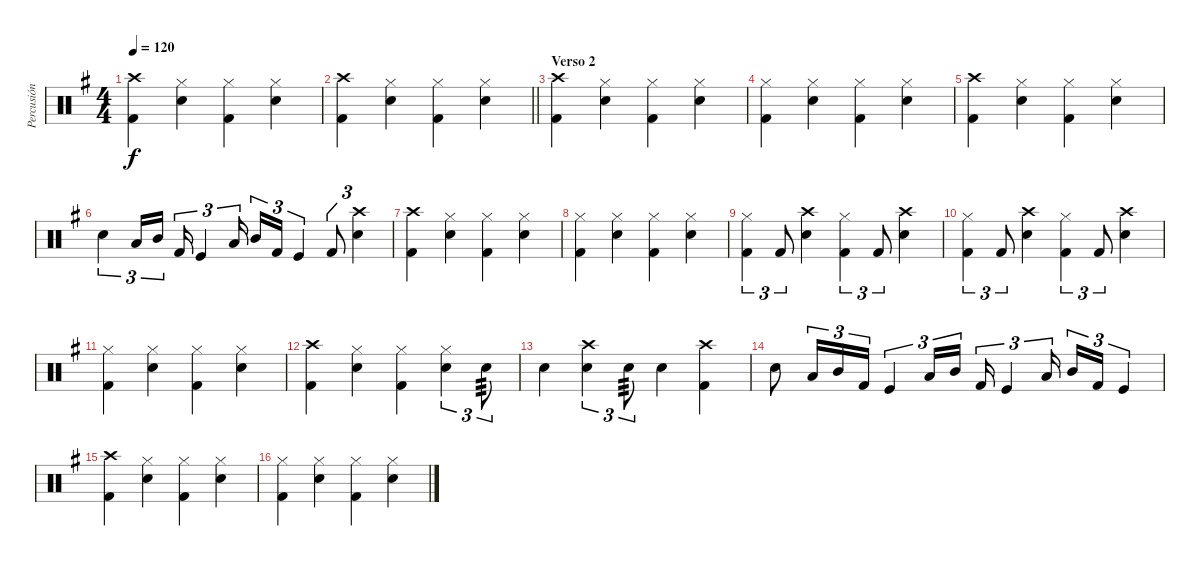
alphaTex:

\track ("Percusión" "Percusión") {instrument percussion}
\staff {score}
\articulation defaults
\ts (4 4)
\tempo 120
\clef neutral
\ks g
("Crash high (hit)" "Kick (hit) 2").4{dy f} ("Hi-Hat (closed)" "Snare (hit) 2").4 ("Hi-Hat (closed)" "Kick (hit) 2").4 ("Hi-Hat (closed)" "Snare (hit) 2").4 |
\barLineRight lightlight
("Crash high (hit)" "Kick (hit) 2").4 ("Hi-Hat (closed)" "Snare (hit) 2").4 ("Hi-Hat (closed)" "Kick (hit) 2").4 ("Hi-Hat (closed)" "Snare (hit) 2").4 |
\section ("" "Verso 2")
("Crash high (hit)" "Kick (hit) 2").4 ("Hi-Hat (closed)" "Snare (hit) 2").4 ("Hi-Hat (closed)" "Kick (hit) 2").4 ("Hi-Hat (closed)" "Snare (hit) 2").4 |
("Hi-Hat (closed)" "Kick (hit) 2").4 ("Hi-Hat (closed)" "Snare (hit) 2").4 ("Hi-Hat (closed)" "Kick (hit) 2").4 ("Hi-Hat (closed)" "Snare (hit) 2").4 |
("Crash high (hit)" "Kick (hit) 2").4 ("Hi-Hat (closed)" "Snare (hit) 2").4 ("Hi-Hat (closed)" "Kick (hit) 2").4 ("Hi-Hat (closed)" "Snare (hit) 2").4 |
"Snare (hit) 2".4{tu (3 2)} "Low Tom (hit)".16{tu (3 2)} "Mid Tom (hit)".16{tu (3 2)} "Kick (hit) 2".16{tu (3 2)} "Kick (hit)".4{tu (3 2)} "Low Tom (hit)".16{tu (3 2)} "Mid Tom (hit)".16{tu (3 2)} "Kick (hit) 2".16{tu (3 2)} "Kick (hit)".4{tu (3 2)} "Kick (hit) 2".8{tu (3 2)} ("Crash high (hit)" "Snare (hit) 2").4{tu (3 2)} |
("Crash high (hit)" "Kick (hit) 2").4 ("Hi-Hat (closed)" "Snare (hit) 2").4 ("Hi-Hat (closed)" "Kick (hit) 2").4 ("Hi-Hat (closed)" "Snare (hit) 2").4 |
("Hi-Hat (closed)" "Kick (hit) 2").4 ("Hi-Hat (closed)" "Snare (hit) 2").4 ("Hi-Hat (closed)" "Kick (hit) 2").4 ("Hi-Hat (closed)" "Snare (hit) 2").4 |
("Hi-Hat (closed)" "Kick (hit) 2").4{tu (3 2)} "Kick (hit) 2".8{tu (3 2)} ("Crash high (hit)" "Snare (hit) 2").4 ("Hi-Hat (closed)" "Kick (hit) 2").4{tu (3 2)} "Kick (hit) 2".8{tu (3 2)} ("Crash high (hit)" "Snare (hit) 2").4 |
("Hi-Hat (closed)" "Kick (hit) 2").4{tu (3 2)} "Kick (hit) 2".8{tu (3 2)} ("Crash high (hit)" "Snare (hit) 2").4 ("Hi-Hat (closed)" "Kick (hit) 2").4{tu (3 2)} "Kick (hit) 2".8{tu (3 2)} ("Crash high (hit)" "Snare (hit) 2").4 |
("Hi-Hat (closed)" "Kick (hit) 2").4 ("Hi-Hat (closed)" "Snare (hit) 2").4 ("Hi-Hat (closed)" "Kick (hit) 2").4 ("Hi-Hat (closed)" "Snare (hit) 2").4 |
("Crash high (hit)" "Kick (hit) 2").4 ("Hi-Hat (closed)" "Snare (hit) 2").4 ("Hi-Hat (closed)" "Kick (hit) 2").4 ("Hi-Hat (closed)" "Snare (hit) 2").4{tu (3 2)} "Snare (hit) 2".8{tu (3 2) tp 3} |
"Snare (hit) 2".4 ("Crash high (hit)" "Snare (hit) 2").4{tu (3 2)} "Snare (hit) 2".8{tu (3 2) tp 3} "Snare (hit) 2".4 ("Crash high (hit)" "Kick (hit) 2").4 |
"Snare (hit) 2".8 "Low Tom (hit)".16{tu (3 2)} "Mid Tom (hit)".16{tu (3 2)} "Kick (hit) 2".16{tu (3 2)} "Kick (hit)".4{tu (3 2)} "Low Tom (hit)".16{tu (3 2)} "Mid Tom (hit)".16{tu (3 2)} "Kick (hit) 2".16{tu (3 2)} "Kick (hit)".4{tu (3 2)} "Low Tom (hit)".16{tu (3 2)} "Mid Tom (hit)".16{tu (3 2)} "Kick (hit) 2".16{tu (3 2)} "Kick (hit)".4{tu (3 2)} |
("Crash high (hit)" "Kick (hit) 2").4 ("Hi-Hat (closed)" "Snare (hit) 2").4 ("Hi-Hat (closed)" "Kick (hit) 2").4 ("Hi-Hat (closed)" "Snare (hit) 2").4 |
("Hi-Hat (closed)" "Kick (hit) 2").4 ("Hi-Hat (closed)" "Snare (hit) 2").4 ("Hi-Hat (closed)" "Kick (hit) 2").4 ("Hi-Hat (closed)" "Snare (hit) 2").4
